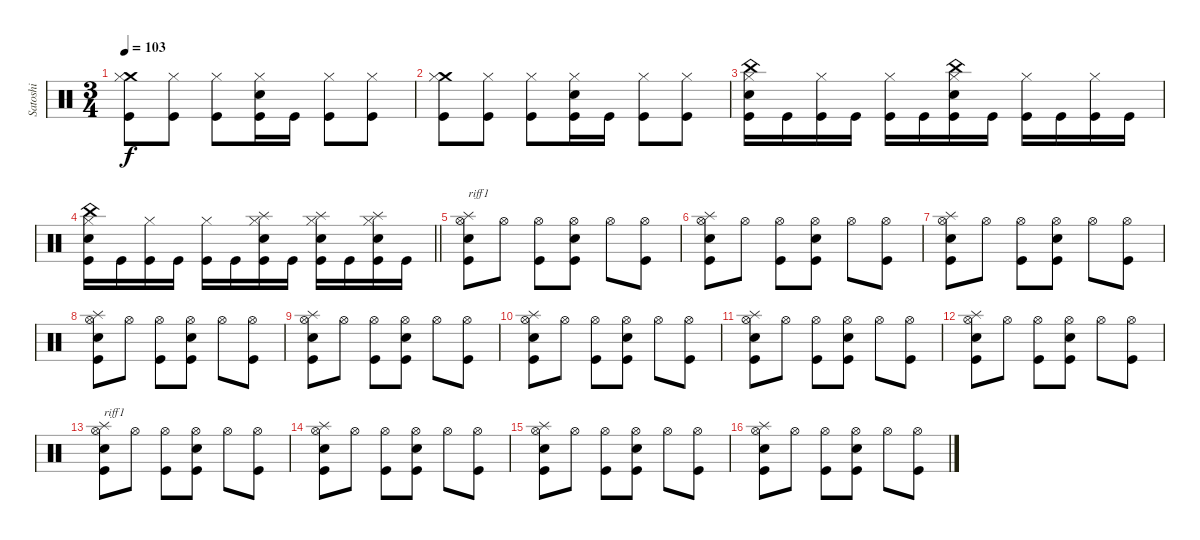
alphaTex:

\track ("Satoshi" "Satoshi") {instrument percussion}
\staff {score}
\articulation defaults
\ts (3 4)
\tempo 103
\clef neutral
\ks c
("Crash medium (hit)" "Hi-Hat (closed)" "Kick (hit)").8{dy f} ("Hi-Hat (closed)" "Kick (hit)").8 ("Hi-Hat (closed)" "Kick (hit)").8 ("Hi-Hat (closed)" "Electric Snare (hit)" "Kick (hit)").16 "Kick (hit)".16 ("Hi-Hat (closed)" "Kick (hit)").8 ("Hi-Hat (closed)" "Kick (hit)").8 |
("Crash medium (hit)" "Hi-Hat (closed)" "Kick (hit)").8 ("Hi-Hat (closed)" "Kick (hit)").8 ("Hi-Hat (closed)" "Kick (hit)").8 ("Hi-Hat (closed)" "Electric Snare (hit)" "Kick (hit)").16 "Kick (hit)".16 ("Hi-Hat (closed)" "Kick (hit)").8 ("Hi-Hat (closed)" "Kick (hit)").8 |
("China (hit)" "Hi-Hat (closed)" "Electric Snare (hit)" "Kick (hit)").16 "Kick (hit)".16 ("Hi-Hat (closed)" "Kick (hit)").16 "Kick (hit)".16 ("Hi-Hat (closed)" "Kick (hit)").16 "Kick (hit)".16 ("China (hit)" "Hi-Hat (closed)" "Electric Snare (hit)" "Kick (hit)").16 "Kick (hit)".16 ("Hi-Hat (closed)" "Kick (hit)").16 "Kick (hit)".16 ("Hi-Hat (closed)" "Kick (hit)").16 "Kick (hit)".16 |
\barLineRight lightlight
("China (hit)" "Hi-Hat (closed)" "Electric Snare (hit)" "Kick (hit)").16 "Kick (hit)".16 ("Hi-Hat (closed)" "Kick (hit)").16 "Kick (hit)".16 ("Hi-Hat (closed)" "Kick (hit)").16 "Kick (hit)".16 ("Splash (hit)" "Hi-Hat (closed)" "Electric Snare (hit)" "Kick (hit)").16 "Kick (hit)".16 ("Splash (hit)" "Hi-Hat (closed)" "Electric Snare (hit)" "Kick (hit)").16 "Kick (hit)".16 ("Splash (hit)" "Hi-Hat (closed)" "Electric Snare (hit)" "Kick (hit)").16 "Kick (hit)".16 |
("Splash (hit)" "Hi-Hat (open)" "Electric Snare (hit)" "Kick (hit)").8{txt "riff1"} "Hi-Hat (open)".8 ("Hi-Hat (open)" "Kick (hit)").8 ("Hi-Hat (open)" "Electric Snare (hit)" "Kick (hit)").8 "Hi-Hat (open)".8 ("Hi-Hat (open)" "Kick (hit)").8 |
("Splash (hit)" "Hi-Hat (open)" "Electric Snare (hit)" "Kick (hit)").8 "Hi-Hat (open)".8 ("Hi-Hat (open)" "Kick (hit)").8 ("Hi-Hat (open)" "Electric Snare (hit)" "Kick (hit)").8 "Hi-Hat (open)".8 ("Hi-Hat (open)" "Kick (hit)").8 |
("Splash (hit)" "Hi-Hat (open)" "Electric Snare (hit)" "Kick (hit)").8 "Hi-Hat (open)".8 ("Hi-Hat (open)" "Kick (hit)").8 ("Hi-Hat (open)" "Electric Snare (hit)" "Kick (hit)").8 "Hi-Hat (open)".8 ("Hi-Hat (open)" "Kick (hit)").8 |
("Splash (hit)" "Hi-Hat (open)" "Electric Snare (hit)" "Kick (hit)").8 "Hi-Hat (open)".8 ("Hi-Hat (open)" "Kick (hit)").8 ("Hi-Hat (open)" "Electric Snare (hit)" "Kick (hit)").8 "Hi-Hat (open)".8 ("Hi-Hat (open)" "Kick (hit)").8 |
("Splash (hit)" "Hi-Hat (open)" "Electric Snare (hit)" "Kick (hit)").8 "Hi-Hat (open)".8 ("Hi-Hat (open)" "Kick (hit)").8 ("Hi-Hat (open)" "Electric Snare (hit)" "Kick (hit)").8 "Hi-Hat (open)".8 ("Hi-Hat (open)" "Kick (hit)").8 |
("Splash (hit)" "Hi-Hat (open)" "Electric Snare (hit)" "Kick (hit)").8 "Hi-Hat (open)".8 ("Hi-Hat (open)" "Kick (hit)").8 ("Hi-Hat (open)" "Electric Snare (hit)" "Kick (hit)").8 "Hi-Hat (open)".8 ("Hi-Hat (open)" "Kick (hit)").8 |
("Splash (hit)" "Hi-Hat (open)" "Electric Snare (hit)" "Kick (hit)").8 "Hi-Hat (open)".8 ("Hi-Hat (open)" "Kick (hit)").8 ("Hi-Hat (open)" "Electric Snare (hit)" "Kick (hit)").8 "Hi-Hat (open)".8 ("Hi-Hat (open)" "Kick (hit)").8 |
("Splash (hit)" "Hi-Hat (open)" "Electric Snare (hit)" "Kick (hit)").8 "Hi-Hat (open)".8 ("Hi-Hat (open)" "Kick (hit)").8 ("Hi-Hat (open)" "Electric Snare (hit)" "Kick (hit)").8 "Hi-Hat (open)".8 ("Hi-Hat (open)" "Kick (hit)").8 |
("Splash (hit)" "Hi-Hat (open)" "Electric Snare (hit)" "Kick (hit)").8{txt "riff1"} "Hi-Hat (open)".8 ("Hi-Hat (open)" "Kick (hit)").8 ("Hi-Hat (open)" "Electric Snare (hit)" "Kick (hit)").8 "Hi-Hat (open)".8 ("Hi-Hat (open)" "Kick (hit)").8 |
("Splash (hit)" "Hi-Hat (open)" "Electric Snare (hit)" "Kick (hit)").8 "Hi-Hat (open)".8 ("Hi-Hat (open)" "Kick (hit)").8 ("Hi-Hat (open)" "Electric Snare (hit)" "Kick (hit)").8 "Hi-Hat (open)".8 ("Hi-Hat (open)" "Kick (hit)").8 |
("Splash (hit)" "Hi-Hat (open)" "Electric Snare (hit)" "Kick (hit)").8 "Hi-Hat (open)".8 ("Hi-Hat (open)" "Kick (hit)").8 ("Hi-Hat (open)" "Electric Snare (hit)" "Kick (hit)").8 "Hi-Hat (open)".8 ("Hi-Hat (open)" "Kick (hit)").8 |
("Splash (hit)" "Hi-Hat (open)" "Electric Snare (hit)" "Kick (hit)").8 "Hi-Hat (open)".8 ("Hi-Hat (open)" "Kick (hit)").8 ("Hi-Hat (open)" "Electric Snare (hit)" "Kick (hit)").8 "Hi-Hat (open)".8 ("Hi-Hat (open)" "Kick (hit)").8
